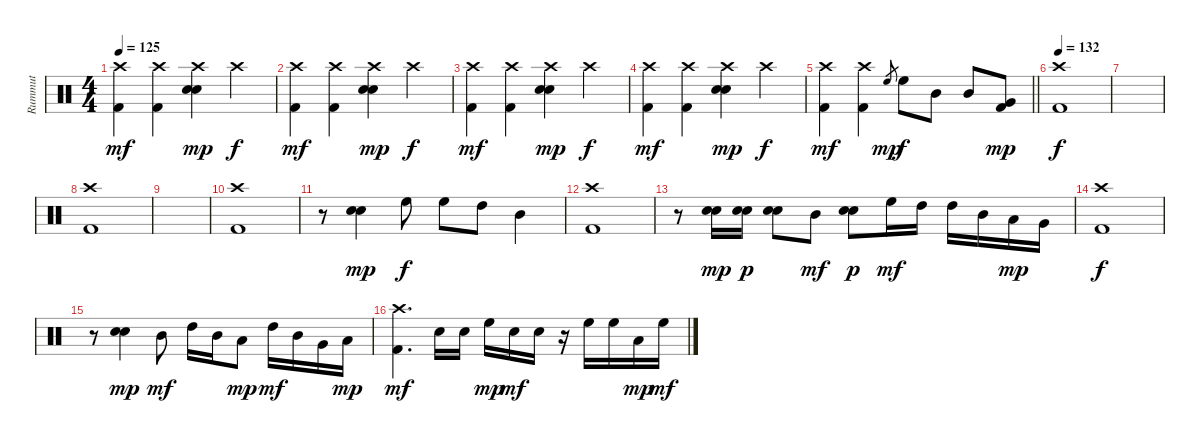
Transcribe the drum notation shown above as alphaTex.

\track ("Rummut" "Rummut") {instrument percussion}
\staff {score}
\articulation defaults
\ts (4 4)
\tempo 125
\clef neutral
\ks c
("Crash high (hit)" "Kick (hit) 2").4{dy mf} ("Crash high (hit)" "Kick (hit) 2").4 ("Crash high (hit)" "Electric Snare (hit)" "Snare (hit) 2").4{dy mp} "Crash high (hit)".4{dy f} |
("Crash high (hit)" "Kick (hit) 2").4{dy mf} ("Crash high (hit)" "Kick (hit) 2").4 ("Crash high (hit)" "Electric Snare (hit)" "Snare (hit) 2").4{dy mp} "Crash high (hit)".4{dy f} |
("Crash high (hit)" "Kick (hit) 2").4{dy mf} ("Crash high (hit)" "Kick (hit) 2").4 ("Crash high (hit)" "Electric Snare (hit)" "Snare (hit) 2").4{dy mp} "Crash high (hit)".4{dy f} |
("Crash high (hit)" "Kick (hit) 2").4{dy mf} ("Crash high (hit)" "Kick (hit) 2").4 ("Crash high (hit)" "Electric Snare (hit)" "Snare (hit) 2").4{dy mp} "Crash high (hit)".4{dy f} |
\barLineRight lightlight
("Crash high (hit)" "Kick (hit) 2").4{dy mf} ("Crash high (hit)" "Kick (hit) 2").4 "High Floor Tom (hit)".8{gr dy mp} "High Floor Tom (hit)".8{dy f} "Mid Tom (hit)".8 "Mid Tom (hit)".8 ("Very Low Tom (hit)" "Kick (hit) 2").8{dy mp} |
\section ("" "")
\tempo 132
("Crash high (hit)" "Kick (hit) 2").1{dy f} |
|
("Crash high (hit)" "Kick (hit) 2").1 |
|
("Crash high (hit)" "Kick (hit) 2").1 |
r.8 ("Electric Snare (hit)" "Snare (hit) 2").4{dy mp} "High Floor Tom (hit)".8{dy f} "High Floor Tom (hit)".8 "High Tom (hit)".8 "Mid Tom (hit)".4 |
("Crash high (hit)" "Kick (hit) 2").1 |
r.8 ("Electric Snare (hit)" "Snare (hit) 2").16{dy mp} ("Electric Snare (hit)" "Snare (hit) 2").16{dy p} ("Electric Snare (hit)" "Snare (hit) 2").8 "Mid Tom (hit)".8{dy mf} ("Electric Snare (hit)" "Snare (hit) 2").8{dy p} "High Floor Tom (hit)".16{dy mf} "High Tom (hit)".16 "High Tom (hit)".16 "Mid Tom (hit)".16 "Low Tom (hit)".16{dy mp} "Very Low Tom (hit)".16 |
("Crash high (hit)" "Kick (hit) 2").1{dy f} |
r.8 ("Electric Snare (hit)" "Snare (hit) 2").4{dy mp} "Mid Tom (hit)".8{dy mf} "High Tom (hit)".16 "Mid Tom (hit)".16 "Low Tom (hit)".8{dy mp} "High Tom (hit)".16{dy mf} "Mid Tom (hit)".16 "Very Low Tom (hit)".16 "Low Floor Tom (hit)".16{dy mp} |
("Crash high (hit)" "Kick (hit) 2").4{d dy mf} "Electric Snare (hit)".16 "Electric Snare (hit)".16 "High Floor Tom (hit)".16{dy mp} "Electric Snare (hit)".16{dy mf} "Electric Snare (hit)".16 r.16 "High Floor Tom (hit)".16 "High Floor Tom (hit)".16 "Low Tom (hit)".16{dy mp} "High Floor Tom (hit)".16{dy mf}
